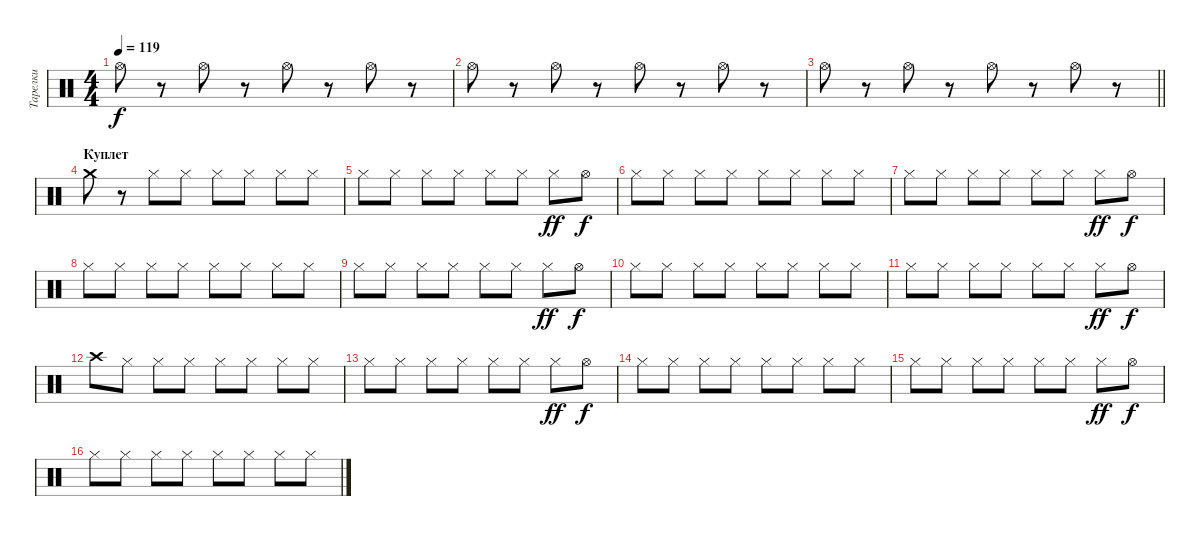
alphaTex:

\track ("Тарелки" "Тарелки") {instrument percussion}
\staff {score}
\articulation defaults
\ts (4 4)
\tempo 119
\clef neutral
\ks c "Hi-Hat (open)".8{dy f}
r.8 "Hi-Hat (open)".8 r.8 "Hi-Hat (open)".8 r.8 "Hi-Hat (open)".8 r.8 |
"Hi-Hat (open)".8 r.8 "Hi-Hat (open)".8 r.8 "Hi-Hat (open)".8 r.8 "Hi-Hat (open)".8 r.8 |
\barLineRight lightlight "Hi-Hat (open)".8
r.8 "Hi-Hat (open)".8 r.8 "Hi-Hat (open)".8 r.8 "Hi-Hat (open)".8 r.8 |
\section ("" "Куплет")
"Crash medium (hit)".8 r.8 "Hi-Hat (closed)".8 "Hi-Hat (closed)".8 "Hi-Hat (closed)".8 "Hi-Hat (closed)".8 "Hi-Hat (closed)".8 "Hi-Hat (closed)".8 |
"Hi-Hat (closed)".8 "Hi-Hat (closed)".8 "Hi-Hat (closed)".8 "Hi-Hat (closed)".8 "Hi-Hat (closed)".8 "Hi-Hat (closed)".8 "Hi-Hat (closed)".8{dy ff} "Hi-Hat (open)".8{dy f} |
"Hi-Hat (closed)".8 "Hi-Hat (closed)".8 "Hi-Hat (closed)".8 "Hi-Hat (closed)".8 "Hi-Hat (closed)".8 "Hi-Hat (closed)".8 "Hi-Hat (closed)".8 "Hi-Hat (closed)".8 |
"Hi-Hat (closed)".8 "Hi-Hat (closed)".8 "Hi-Hat (closed)".8 "Hi-Hat (closed)".8 "Hi-Hat (closed)".8 "Hi-Hat (closed)".8 "Hi-Hat (closed)".8{dy ff} "Hi-Hat (open)".8{dy f} |
"Hi-Hat (closed)".8 "Hi-Hat (closed)".8 "Hi-Hat (closed)".8 "Hi-Hat (closed)".8 "Hi-Hat (closed)".8 "Hi-Hat (closed)".8 "Hi-Hat (closed)".8 "Hi-Hat (closed)".8 |
"Hi-Hat (closed)".8 "Hi-Hat (closed)".8 "Hi-Hat (closed)".8 "Hi-Hat (closed)".8 "Hi-Hat (closed)".8 "Hi-Hat (closed)".8 "Hi-Hat (closed)".8{dy ff} "Hi-Hat (open)".8{dy f} |
"Hi-Hat (closed)".8 "Hi-Hat (closed)".8 "Hi-Hat (closed)".8 "Hi-Hat (closed)".8 "Hi-Hat (closed)".8 "Hi-Hat (closed)".8 "Hi-Hat (closed)".8 "Hi-Hat (closed)".8 |
"Hi-Hat (closed)".8 "Hi-Hat (closed)".8 "Hi-Hat (closed)".8 "Hi-Hat (closed)".8 "Hi-Hat (closed)".8 "Hi-Hat (closed)".8 "Hi-Hat (closed)".8{dy ff} "Hi-Hat (open)".8{dy f} |
"Crash high (hit)".8 "Hi-Hat (closed)".8 "Hi-Hat (closed)".8 "Hi-Hat (closed)".8 "Hi-Hat (closed)".8 "Hi-Hat (closed)".8 "Hi-Hat (closed)".8 "Hi-Hat (closed)".8 |
"Hi-Hat (closed)".8 "Hi-Hat (closed)".8 "Hi-Hat (closed)".8 "Hi-Hat (closed)".8 "Hi-Hat (closed)".8 "Hi-Hat (closed)".8 "Hi-Hat (closed)".8{dy ff} "Hi-Hat (open)".8{dy f} |
"Hi-Hat (closed)".8 "Hi-Hat (closed)".8 "Hi-Hat (closed)".8 "Hi-Hat (closed)".8 "Hi-Hat (closed)".8 "Hi-Hat (closed)".8 "Hi-Hat (closed)".8 "Hi-Hat (closed)".8 |
"Hi-Hat (closed)".8 "Hi-Hat (closed)".8 "Hi-Hat (closed)".8 "Hi-Hat (closed)".8 "Hi-Hat (closed)".8 "Hi-Hat (closed)".8 "Hi-Hat (closed)".8{dy ff} "Hi-Hat (open)".8{dy f} |
"Hi-Hat (closed)".8 "Hi-Hat (closed)".8 "Hi-Hat (closed)".8 "Hi-Hat (closed)".8 "Hi-Hat (closed)".8 "Hi-Hat (closed)".8 "Hi-Hat (closed)".8 "Hi-Hat (closed)".8
